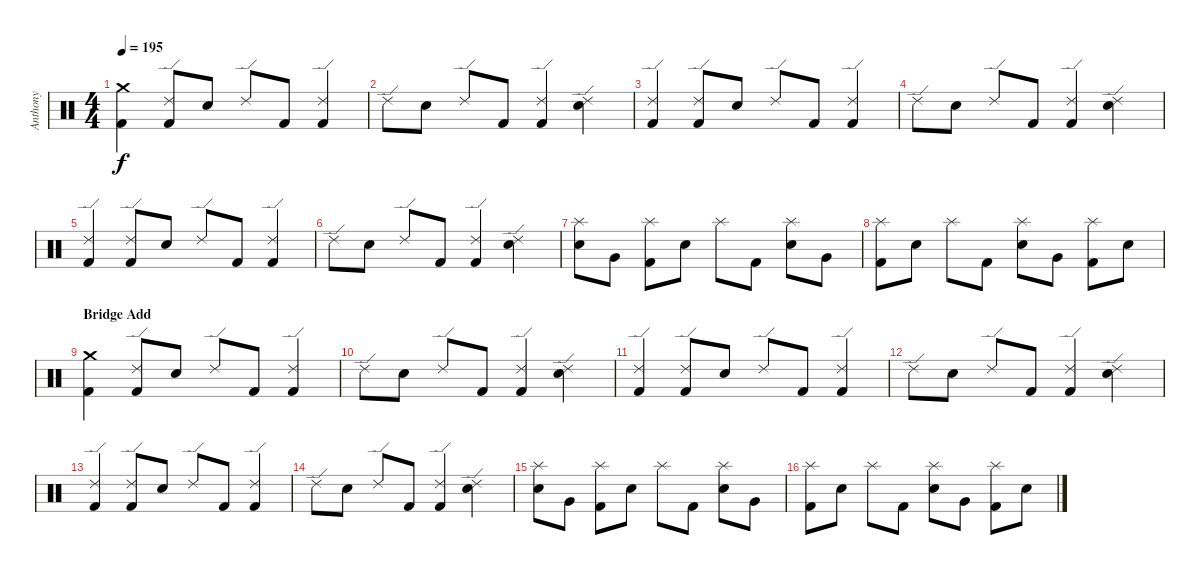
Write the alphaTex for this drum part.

\track ("Anthony" "Anthony") {instrument percussion}
\staff {score}
\articulation defaults
\ts (4 4)
\tempo 195
\clef neutral
\ks c
("Crash medium (hit)" "Kick (hit) 2").4{dy f} ("Ride (edge) 2" "Kick (hit) 2").8 "Electric Snare (hit)".8 "Ride (edge) 2".8 "Kick (hit) 2".8 ("Ride (edge) 2" "Kick (hit) 2").4 |
"Ride (edge) 2".8 "Electric Snare (hit)".8 "Ride (edge) 2".8 "Kick (hit) 2".8 ("Ride (edge) 2" "Kick (hit) 2").4 ("Ride (edge) 2" "Electric Snare (hit)").4 |
("Ride (edge) 2" "Kick (hit) 2").4 ("Ride (edge) 2" "Kick (hit) 2").8 "Electric Snare (hit)".8 "Ride (edge) 2".8 "Kick (hit) 2".8 ("Ride (edge) 2" "Kick (hit) 2").4 |
"Ride (edge) 2".8 "Electric Snare (hit)".8 "Ride (edge) 2".8 "Kick (hit) 2".8 ("Ride (edge) 2" "Kick (hit) 2").4 ("Ride (edge) 2" "Electric Snare (hit)").4 |
("Ride (edge) 2" "Kick (hit) 2").4 ("Ride (edge) 2" "Kick (hit) 2").8 "Electric Snare (hit)".8 "Ride (edge) 2".8 "Kick (hit) 2".8 ("Ride (edge) 2" "Kick (hit) 2").4 |
"Ride (edge) 2".8 "Electric Snare (hit)".8 "Ride (edge) 2".8 "Kick (hit) 2".8 ("Ride (edge) 2" "Kick (hit) 2").4 ("Ride (edge) 2" "Electric Snare (hit)").4 |
("Splash (hit)" "Electric Snare (hit)").8 "Very Low Tom (hit)".8 ("Splash (hit)" "Kick (hit) 2").8 "Electric Snare (hit)".8 "Splash (hit)".8 "Kick (hit) 2".8 ("Splash (hit)" "Electric Snare (hit)").8 "Very Low Tom (hit)".8 |
("Splash (hit)" "Kick (hit) 2").8 "Electric Snare (hit)".8 "Splash (hit)".8 "Kick (hit) 2".8 ("Splash (hit)" "Electric Snare (hit)").8 "Very Low Tom (hit)".8 ("Splash (hit)" "Kick (hit) 2").8 "Electric Snare (hit)".8 |
\section ("" "Bridge Add")
("Crash medium (hit)" "Kick (hit) 2").4 ("Ride (edge) 2" "Kick (hit) 2").8 "Electric Snare (hit)".8 "Ride (edge) 2".8 "Kick (hit) 2".8 ("Ride (edge) 2" "Kick (hit) 2").4 |
"Ride (edge) 2".8 "Electric Snare (hit)".8 "Ride (edge) 2".8 "Kick (hit) 2".8 ("Ride (edge) 2" "Kick (hit) 2").4 ("Ride (edge) 2" "Electric Snare (hit)").4 |
("Ride (edge) 2" "Kick (hit) 2").4 ("Ride (edge) 2" "Kick (hit) 2").8 "Electric Snare (hit)".8 "Ride (edge) 2".8 "Kick (hit) 2".8 ("Ride (edge) 2" "Kick (hit) 2").4 |
"Ride (edge) 2".8 "Electric Snare (hit)".8 "Ride (edge) 2".8 "Kick (hit) 2".8 ("Ride (edge) 2" "Kick (hit) 2").4 ("Ride (edge) 2" "Electric Snare (hit)").4 |
("Ride (edge) 2" "Kick (hit) 2").4 ("Ride (edge) 2" "Kick (hit) 2").8 "Electric Snare (hit)".8 "Ride (edge) 2".8 "Kick (hit) 2".8 ("Ride (edge) 2" "Kick (hit) 2").4 |
"Ride (edge) 2".8 "Electric Snare (hit)".8 "Ride (edge) 2".8 "Kick (hit) 2".8 ("Ride (edge) 2" "Kick (hit) 2").4 ("Ride (edge) 2" "Electric Snare (hit)").4 |
("Splash (hit)" "Electric Snare (hit)").8 "Very Low Tom (hit)".8 ("Splash (hit)" "Kick (hit) 2").8 "Electric Snare (hit)".8 "Splash (hit)".8 "Kick (hit) 2".8 ("Splash (hit)" "Electric Snare (hit)").8 "Very Low Tom (hit)".8 |
("Splash (hit)" "Kick (hit) 2").8 "Electric Snare (hit)".8 "Splash (hit)".8 "Kick (hit) 2".8 ("Splash (hit)" "Electric Snare (hit)").8 "Very Low Tom (hit)".8 ("Splash (hit)" "Kick (hit) 2").8 "Electric Snare (hit)".8
